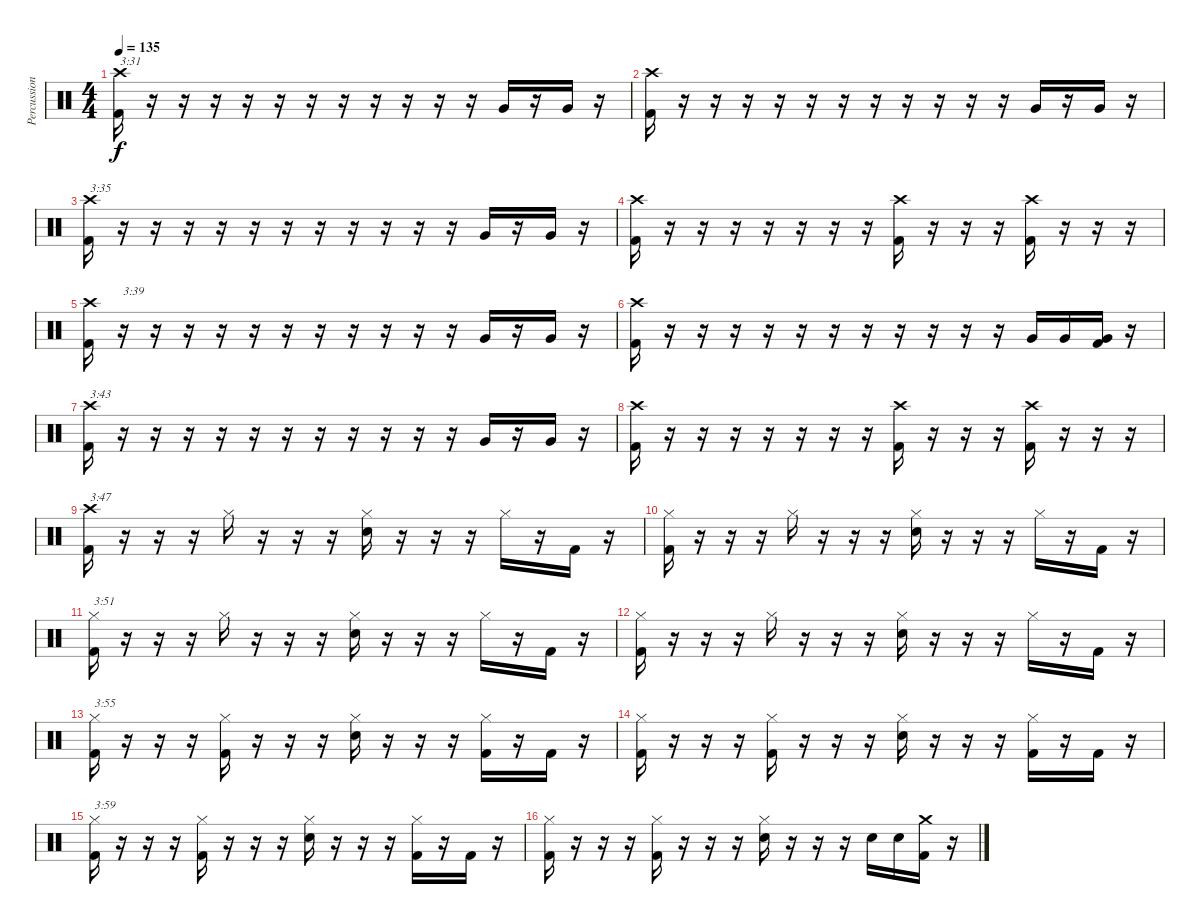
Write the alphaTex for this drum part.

\track ("Percussion" "Percussion") {instrument percussion}
\staff {score}
\articulation defaults
\ts (4 4)
\tempo 135
\clef neutral
\ks c
("Crash high (hit)" "Kick (hit) 2").16{txt "3:31" dy f} r.16 r.16 r.16 r.16 r.16 r.16 r.16 r.16 r.16 r.16 r.16 "Very Low Tom (hit)".16 r.16 "Very Low Tom (hit)".16 r.16 |
("Crash high (hit)" "Kick (hit) 2").16 r.16 r.16 r.16 r.16 r.16 r.16 r.16 r.16 r.16 r.16 r.16 "Very Low Tom (hit)".16 r.16 "Very Low Tom (hit)".16 r.16 |
("Crash high (hit)" "Kick (hit) 2").16{txt "3:35"} r.16 r.16 r.16 r.16 r.16 r.16 r.16 r.16 r.16 r.16 r.16 "Very Low Tom (hit)".16 r.16 "Very Low Tom (hit)".16 r.16 |
("Crash high (hit)" "Kick (hit) 2").16 r.16 r.16 r.16 r.16 r.16 r.16 r.16 ("Crash high (hit)" "Kick (hit) 2").16 r.16 r.16 r.16 ("Crash high (hit)" "Kick (hit) 2").16 r.16 r.16 r.16 |
("Crash high (hit)" "Kick (hit) 2").16 r.16{txt "3:39"} r.16 r.16 r.16 r.16 r.16 r.16 r.16 r.16 r.16 r.16 "Very Low Tom (hit)".16 r.16 "Very Low Tom (hit)".16 r.16 |
("Crash high (hit)" "Kick (hit) 2").16 r.16 r.16 r.16 r.16 r.16 r.16 r.16 r.16 r.16 r.16 r.16 "Very Low Tom (hit)".16 "Very Low Tom (hit)".16 ("Very Low Tom (hit)" "Kick (hit) 2").16 r.16 |
("Crash high (hit)" "Kick (hit) 2").16{txt "3:43"} r.16 r.16 r.16 r.16 r.16 r.16 r.16 r.16 r.16 r.16 r.16 "Very Low Tom (hit)".16 r.16 "Very Low Tom (hit)".16 r.16 |
("Crash high (hit)" "Kick (hit) 2").16 r.16 r.16 r.16 r.16 r.16 r.16 r.16 ("Crash high (hit)" "Kick (hit) 2").16 r.16 r.16 r.16 ("Crash high (hit)" "Kick (hit) 2").16 r.16 r.16 r.16 |
("Crash high (hit)" "Kick (hit) 2").16{txt "3:47"} r.16 r.16 r.16 "Hi-Hat (closed)".16 r.16 r.16 r.16 ("Hi-Hat (closed)" "Snare (hit) 2").16 r.16 r.16 r.16 "Hi-Hat (closed)".16 r.16 "Kick (hit) 2".16 r.16 |
("Hi-Hat (closed)" "Kick (hit) 2").16 r.16 r.16 r.16 "Hi-Hat (closed)".16 r.16 r.16 r.16 ("Hi-Hat (closed)" "Snare (hit) 2").16 r.16 r.16 r.16 "Hi-Hat (closed)".16 r.16 "Kick (hit) 2".16 r.16 |
("Hi-Hat (closed)" "Kick (hit) 2").16{txt "3:51"} r.16 r.16 r.16 "Hi-Hat (closed)".16 r.16 r.16 r.16 ("Hi-Hat (closed)" "Snare (hit) 2").16 r.16 r.16 r.16 "Hi-Hat (closed)".16 r.16 "Kick (hit) 2".16 r.16 |
("Hi-Hat (closed)" "Kick (hit) 2").16 r.16 r.16 r.16 "Hi-Hat (closed)".16 r.16 r.16 r.16 ("Hi-Hat (closed)" "Snare (hit) 2").16 r.16 r.16 r.16 "Hi-Hat (closed)".16 r.16 "Kick (hit) 2".16 r.16 |
("Hi-Hat (closed)" "Kick (hit) 2").16{txt "3:55"} r.16 r.16 r.16 ("Hi-Hat (closed)" "Kick (hit) 2").16 r.16 r.16 r.16 ("Hi-Hat (closed)" "Snare (hit) 2").16 r.16 r.16 r.16 ("Hi-Hat (closed)" "Kick (hit) 2").16 r.16 "Kick (hit) 2".16 r.16 |
("Hi-Hat (closed)" "Kick (hit) 2").16 r.16 r.16 r.16 ("Hi-Hat (closed)" "Kick (hit) 2").16 r.16 r.16 r.16 ("Hi-Hat (closed)" "Snare (hit) 2").16 r.16 r.16 r.16 ("Hi-Hat (closed)" "Kick (hit) 2").16 r.16 "Kick (hit) 2".16 r.16 |
("Hi-Hat (closed)" "Kick (hit) 2").16{txt "3:59"} r.16 r.16 r.16 ("Hi-Hat (closed)" "Kick (hit) 2").16 r.16 r.16 r.16 ("Hi-Hat (closed)" "Snare (hit) 2").16 r.16 r.16 r.16 ("Hi-Hat (closed)" "Kick (hit) 2").16 r.16 "Kick (hit) 2".16 r.16 |
("Hi-Hat (closed)" "Kick (hit) 2").16 r.16 r.16 r.16 ("Hi-Hat (closed)" "Kick (hit) 2").16 r.16 r.16 r.16 ("Hi-Hat (closed)" "Snare (hit) 2").16 r.16 r.16 r.16 "Snare (hit) 2".16 "Snare (hit) 2".16 ("Crash medium (hit)" "Kick (hit) 2").16 r.16
